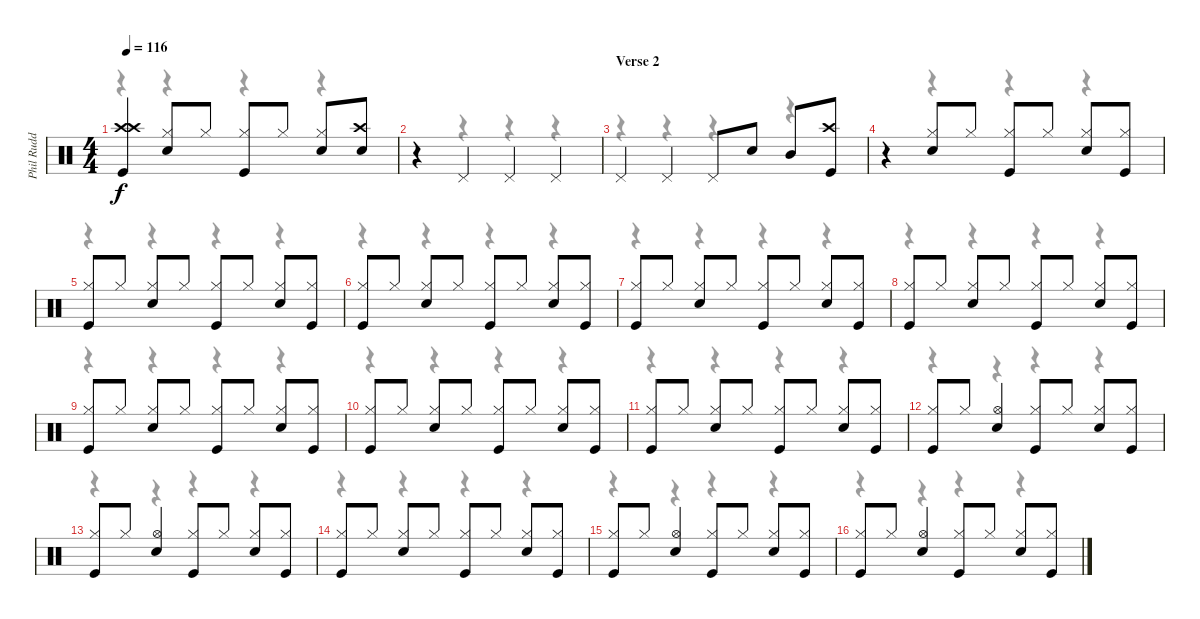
\track ("Phil Rudd" "Phil Rudd") {instrument percussion}
\staff {score}
\articulation defaults
\voice
\ts (4 4)
\tempo 116
\clef neutral
\ks c
("Crash high (hit)" "Crash high (hit)" "Kick (hit)").4{dy f} ("Hi-Hat (closed)" "Snare (hit) 2").8 "Hi-Hat (closed)".8 ("Hi-Hat (closed)" "Kick (hit)").8 "Hi-Hat (closed)".8 ("Hi-Hat (closed)" "Snare (hit) 2").8 ("Crash high (hit)" "Snare (hit) 2").8 |
r.4 "Pedal Hi-Hat (hit)".4 "Pedal Hi-Hat (hit)".4 "Pedal Hi-Hat (hit)".4 |
\section ("" "Verse 2")
"Pedal Hi-Hat (hit)".4 "Pedal Hi-Hat (hit)".4 "Pedal Hi-Hat (hit)".8 "Snare (hit) 2".8 "Mid Tom (hit)".8 ("Crash high (hit)" "Kick (hit)").8 |
r.4 ("Hi-Hat (closed)" "Snare (hit) 2").8 "Hi-Hat (closed)".8 ("Hi-Hat (closed)" "Kick (hit)").8 "Hi-Hat (closed)".8 ("Hi-Hat (closed)" "Snare (hit) 2").8 ("Hi-Hat (closed)" "Kick (hit)").8 |
("Hi-Hat (closed)" "Kick (hit)").8 "Hi-Hat (closed)".8 ("Hi-Hat (closed)" "Snare (hit) 2").8 "Hi-Hat (closed)".8 ("Hi-Hat (closed)" "Kick (hit)").8 "Hi-Hat (closed)".8 ("Hi-Hat (closed)" "Snare (hit) 2").8 ("Hi-Hat (closed)" "Kick (hit)").8 |
("Hi-Hat (closed)" "Kick (hit)").8 "Hi-Hat (closed)".8 ("Hi-Hat (closed)" "Snare (hit) 2").8 "Hi-Hat (closed)".8 ("Hi-Hat (closed)" "Kick (hit)").8 "Hi-Hat (closed)".8 ("Hi-Hat (closed)" "Snare (hit) 2").8 ("Hi-Hat (closed)" "Kick (hit)").8 |
("Hi-Hat (closed)" "Kick (hit)").8 "Hi-Hat (closed)".8 ("Hi-Hat (closed)" "Snare (hit) 2").8 "Hi-Hat (closed)".8 ("Hi-Hat (closed)" "Kick (hit)").8 "Hi-Hat (closed)".8 ("Hi-Hat (closed)" "Snare (hit) 2").8 ("Hi-Hat (closed)" "Kick (hit)").8 |
("Hi-Hat (closed)" "Kick (hit)").8 "Hi-Hat (closed)".8 ("Hi-Hat (closed)" "Snare (hit) 2").8 "Hi-Hat (closed)".8 ("Hi-Hat (closed)" "Kick (hit)").8 "Hi-Hat (closed)".8 ("Hi-Hat (closed)" "Snare (hit) 2").8 ("Hi-Hat (closed)" "Kick (hit)").8 |
("Hi-Hat (closed)" "Kick (hit)").8 "Hi-Hat (closed)".8 ("Hi-Hat (closed)" "Snare (hit) 2").8 "Hi-Hat (closed)".8 ("Hi-Hat (closed)" "Kick (hit)").8 "Hi-Hat (closed)".8 ("Hi-Hat (closed)" "Snare (hit) 2").8 ("Hi-Hat (closed)" "Kick (hit)").8 |
("Hi-Hat (closed)" "Kick (hit)").8 "Hi-Hat (closed)".8 ("Hi-Hat (closed)" "Snare (hit) 2").8 "Hi-Hat (closed)".8 ("Hi-Hat (closed)" "Kick (hit)").8 "Hi-Hat (closed)".8 ("Hi-Hat (closed)" "Snare (hit) 2").8 ("Hi-Hat (closed)" "Kick (hit)").8 |
("Hi-Hat (closed)" "Kick (hit)").8 "Hi-Hat (closed)".8 ("Hi-Hat (closed)" "Snare (hit) 2").8 "Hi-Hat (closed)".8 ("Hi-Hat (closed)" "Kick (hit)").8 "Hi-Hat (closed)".8 ("Hi-Hat (closed)" "Snare (hit) 2").8 ("Hi-Hat (closed)" "Kick (hit)").8 |
("Hi-Hat (closed)" "Kick (hit)").8 "Hi-Hat (closed)".8 ("Hi-Hat (open)" "Snare (hit) 2").4 ("Hi-Hat (closed)" "Kick (hit)").8 "Hi-Hat (closed)".8 ("Hi-Hat (closed)" "Snare (hit) 2").8 ("Hi-Hat (closed)" "Kick (hit)").8 |
("Hi-Hat (closed)" "Kick (hit)").8 "Hi-Hat (closed)".8 ("Hi-Hat (open)" "Snare (hit) 2").4 ("Hi-Hat (closed)" "Kick (hit)").8 "Hi-Hat (closed)".8 ("Hi-Hat (closed)" "Snare (hit) 2").8 ("Hi-Hat (closed)" "Kick (hit)").8 |
("Hi-Hat (closed)" "Kick (hit)").8 "Hi-Hat (closed)".8 ("Hi-Hat (closed)" "Snare (hit) 2").8 "Hi-Hat (closed)".8 ("Hi-Hat (closed)" "Kick (hit)").8 "Hi-Hat (closed)".8 ("Hi-Hat (closed)" "Snare (hit) 2").8 ("Hi-Hat (closed)" "Kick (hit)").8 |
("Hi-Hat (closed)" "Kick (hit)").8 "Hi-Hat (closed)".8 ("Hi-Hat (open)" "Snare (hit) 2").4 ("Hi-Hat (closed)" "Kick (hit)").8 "Hi-Hat (closed)".8 ("Hi-Hat (closed)" "Snare (hit) 2").8 ("Hi-Hat (closed)" "Kick (hit)").8 |
("Hi-Hat (closed)" "Kick (hit)").8 "Hi-Hat (closed)".8 ("Hi-Hat (open)" "Snare (hit) 2").4 ("Hi-Hat (closed)" "Kick (hit)").8 "Hi-Hat (closed)".8 ("Hi-Hat (closed)" "Snare (hit) 2").8 ("Hi-Hat (closed)" "Kick (hit)").8
\voice
\clef neutral
\ottava regular
\simile none
\ks c
r.4{dy f} r.4 r.4 r.4 |
r.4 r.4 r.4 r.4 |
r.4 r.4 r.4 r.4 |
r.4 r.4 r.4 r.4 |
r.4 r.4 r.4 r.4 |
r.4 r.4 r.4 r.4 |
r.4 r.4 r.4 r.4 |
r.4 r.4 r.4 r.4 |
r.4 r.4 r.4 r.4 |
r.4 r.4 r.4 r.4 |
r.4 r.4 r.4 r.4 |
r.4 r.4 r.4 r.4 |
r.4 r.4 r.4 r.4 |
r.4 r.4 r.4 r.4 |
r.4 r.4 r.4 r.4 |
r.4 r.4 r.4 r.4
